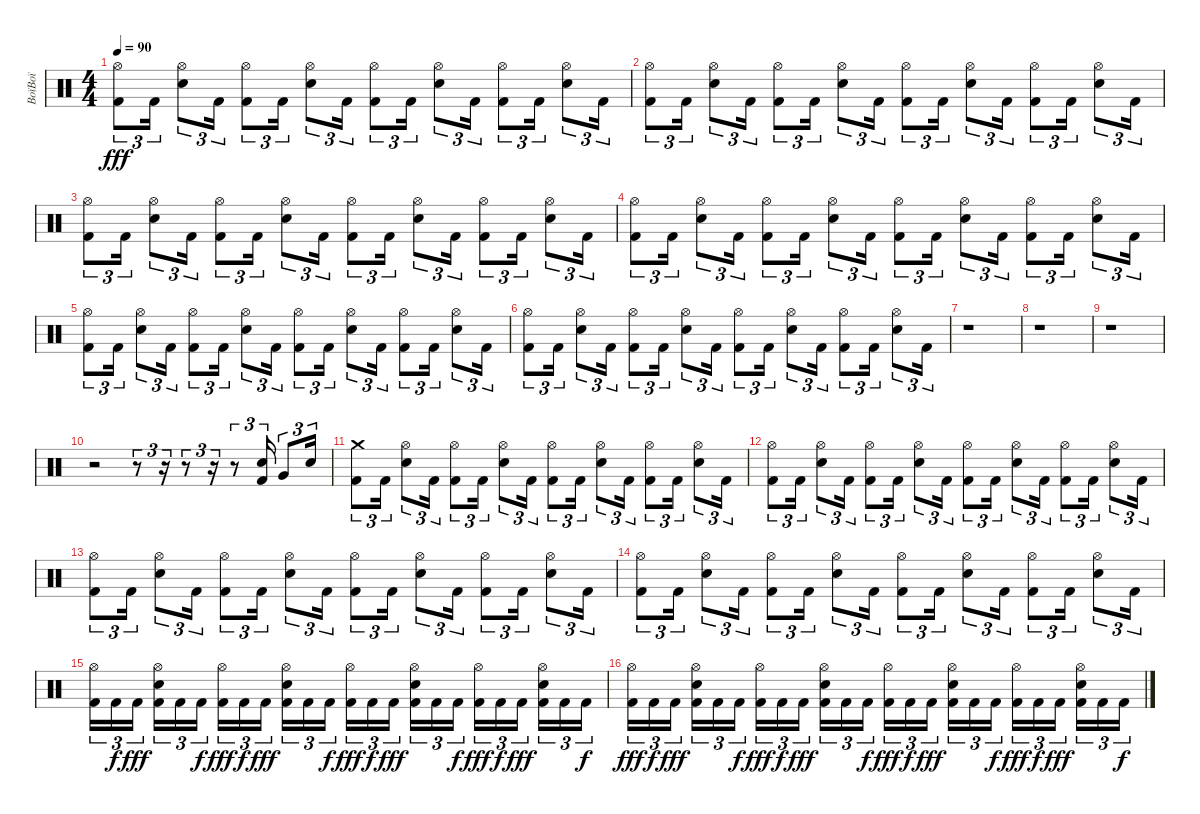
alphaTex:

\track ("BoïBoï" "BoïBoï") {instrument percussion}
\staff {score}
\articulation defaults
\ts (4 4)
\tempo 90
\clef neutral
\ks c
("Hi-Hat (open)" "Kick (hit) 2").8{tu (3 2) dy fff} "Kick (hit) 2".16{tu (3 2)} ("Hi-Hat (open)" "Electric Snare (hit)").8{tu (3 2)} "Kick (hit) 2".16{tu (3 2)} ("Hi-Hat (open)" "Kick (hit) 2").8{tu (3 2)} "Kick (hit) 2".16{tu (3 2)} ("Hi-Hat (open)" "Electric Snare (hit)").8{tu (3 2)} "Kick (hit) 2".16{tu (3 2)} ("Hi-Hat (open)" "Kick (hit) 2").8{tu (3 2)} "Kick (hit) 2".16{tu (3 2)} ("Hi-Hat (open)" "Electric Snare (hit)").8{tu (3 2)} "Kick (hit) 2".16{tu (3 2)} ("Hi-Hat (open)" "Kick (hit) 2").8{tu (3 2)} "Kick (hit) 2".16{tu (3 2)} ("Hi-Hat (open)" "Electric Snare (hit)").8{tu (3 2)} "Kick (hit) 2".16{tu (3 2)} |
("Hi-Hat (open)" "Kick (hit) 2").8{tu (3 2)} "Kick (hit) 2".16{tu (3 2)} ("Hi-Hat (open)" "Electric Snare (hit)").8{tu (3 2)} "Kick (hit) 2".16{tu (3 2)} ("Hi-Hat (open)" "Kick (hit) 2").8{tu (3 2)} "Kick (hit) 2".16{tu (3 2)} ("Hi-Hat (open)" "Electric Snare (hit)").8{tu (3 2)} "Kick (hit) 2".16{tu (3 2)} ("Hi-Hat (open)" "Kick (hit) 2").8{tu (3 2)} "Kick (hit) 2".16{tu (3 2)} ("Hi-Hat (open)" "Electric Snare (hit)").8{tu (3 2)} "Kick (hit) 2".16{tu (3 2)} ("Hi-Hat (open)" "Kick (hit) 2").8{tu (3 2)} "Kick (hit) 2".16{tu (3 2)} ("Hi-Hat (open)" "Electric Snare (hit)").8{tu (3 2)} "Kick (hit) 2".16{tu (3 2)} |
("Hi-Hat (open)" "Kick (hit) 2").8{tu (3 2)} "Kick (hit) 2".16{tu (3 2)} ("Hi-Hat (open)" "Electric Snare (hit)").8{tu (3 2)} "Kick (hit) 2".16{tu (3 2)} ("Hi-Hat (open)" "Kick (hit) 2").8{tu (3 2)} "Kick (hit) 2".16{tu (3 2)} ("Hi-Hat (open)" "Electric Snare (hit)").8{tu (3 2)} "Kick (hit) 2".16{tu (3 2)} ("Hi-Hat (open)" "Kick (hit) 2").8{tu (3 2)} "Kick (hit) 2".16{tu (3 2)} ("Hi-Hat (open)" "Electric Snare (hit)").8{tu (3 2)} "Kick (hit) 2".16{tu (3 2)} ("Hi-Hat (open)" "Kick (hit) 2").8{tu (3 2)} "Kick (hit) 2".16{tu (3 2)} ("Hi-Hat (open)" "Electric Snare (hit)").8{tu (3 2)} "Kick (hit) 2".16{tu (3 2)} |
("Hi-Hat (open)" "Kick (hit) 2").8{tu (3 2)} "Kick (hit) 2".16{tu (3 2)} ("Hi-Hat (open)" "Electric Snare (hit)").8{tu (3 2)} "Kick (hit) 2".16{tu (3 2)} ("Hi-Hat (open)" "Kick (hit) 2").8{tu (3 2)} "Kick (hit) 2".16{tu (3 2)} ("Hi-Hat (open)" "Electric Snare (hit)").8{tu (3 2)} "Kick (hit) 2".16{tu (3 2)} ("Hi-Hat (open)" "Kick (hit) 2").8{tu (3 2)} "Kick (hit) 2".16{tu (3 2)} ("Hi-Hat (open)" "Electric Snare (hit)").8{tu (3 2)} "Kick (hit) 2".16{tu (3 2)} ("Hi-Hat (open)" "Kick (hit) 2").8{tu (3 2)} "Kick (hit) 2".16{tu (3 2)} ("Hi-Hat (open)" "Electric Snare (hit)").8{tu (3 2)} "Kick (hit) 2".16{tu (3 2)} |
("Hi-Hat (open)" "Kick (hit) 2").8{tu (3 2)} "Kick (hit) 2".16{tu (3 2)} ("Hi-Hat (open)" "Electric Snare (hit)").8{tu (3 2)} "Kick (hit) 2".16{tu (3 2)} ("Hi-Hat (open)" "Kick (hit) 2").8{tu (3 2)} "Kick (hit) 2".16{tu (3 2)} ("Hi-Hat (open)" "Electric Snare (hit)").8{tu (3 2)} "Kick (hit) 2".16{tu (3 2)} ("Hi-Hat (open)" "Kick (hit) 2").8{tu (3 2)} "Kick (hit) 2".16{tu (3 2)} ("Hi-Hat (open)" "Electric Snare (hit)").8{tu (3 2)} "Kick (hit) 2".16{tu (3 2)} ("Hi-Hat (open)" "Kick (hit) 2").8{tu (3 2)} "Kick (hit) 2".16{tu (3 2)} ("Hi-Hat (open)" "Electric Snare (hit)").8{tu (3 2)} "Kick (hit) 2".16{tu (3 2)} |
("Hi-Hat (open)" "Kick (hit) 2").8{tu (3 2)} "Kick (hit) 2".16{tu (3 2)} ("Hi-Hat (open)" "Electric Snare (hit)").8{tu (3 2)} "Kick (hit) 2".16{tu (3 2)} ("Hi-Hat (open)" "Kick (hit) 2").8{tu (3 2)} "Kick (hit) 2".16{tu (3 2)} ("Hi-Hat (open)" "Electric Snare (hit)").8{tu (3 2)} "Kick (hit) 2".16{tu (3 2)} ("Hi-Hat (open)" "Kick (hit) 2").8{tu (3 2)} "Kick (hit) 2".16{tu (3 2)} ("Hi-Hat (open)" "Electric Snare (hit)").8{tu (3 2)} "Kick (hit) 2".16{tu (3 2)} ("Hi-Hat (open)" "Kick (hit) 2").8{tu (3 2)} "Kick (hit) 2".16{tu (3 2)} ("Hi-Hat (open)" "Electric Snare (hit)").8{tu (3 2)} "Kick (hit) 2".16{tu (3 2)} |
r.1 |
r.1 |
r.1 |
r.2 r.8{tu (3 2)} r.16{tu (3 2)} r.8{tu (3 2)} r.16{tu (3 2)} r.8{tu (3 2)} ("Electric Snare (hit)" "Kick (hit) 2").16{tu (3 2)} "Very Low Tom (hit)".8{tu (3 2)} "Electric Snare (hit)".16{tu (3 2)} |
("Crash medium (hit)" "Kick (hit) 2").8{tu (3 2)} "Kick (hit) 2".16{tu (3 2)} ("Hi-Hat (open)" "Electric Snare (hit)").8{tu (3 2)} "Kick (hit) 2".16{tu (3 2)} ("Hi-Hat (open)" "Kick (hit) 2").8{tu (3 2)} "Kick (hit) 2".16{tu (3 2)} ("Hi-Hat (open)" "Electric Snare (hit)").8{tu (3 2)} "Kick (hit) 2".16{tu (3 2)} ("Hi-Hat (open)" "Kick (hit) 2").8{tu (3 2)} "Kick (hit) 2".16{tu (3 2)} ("Hi-Hat (open)" "Electric Snare (hit)").8{tu (3 2)} "Kick (hit) 2".16{tu (3 2)} ("Hi-Hat (open)" "Kick (hit) 2").8{tu (3 2)} "Kick (hit) 2".16{tu (3 2)} ("Hi-Hat (open)" "Electric Snare (hit)").8{tu (3 2)} "Kick (hit) 2".16{tu (3 2)} |
("Hi-Hat (open)" "Kick (hit) 2").8{tu (3 2)} "Kick (hit) 2".16{tu (3 2)} ("Hi-Hat (open)" "Electric Snare (hit)").8{tu (3 2)} "Kick (hit) 2".16{tu (3 2)} ("Hi-Hat (open)" "Kick (hit) 2").8{tu (3 2)} "Kick (hit) 2".16{tu (3 2)} ("Hi-Hat (open)" "Electric Snare (hit)").8{tu (3 2)} "Kick (hit) 2".16{tu (3 2)} ("Hi-Hat (open)" "Kick (hit) 2").8{tu (3 2)} "Kick (hit) 2".16{tu (3 2)} ("Hi-Hat (open)" "Electric Snare (hit)").8{tu (3 2)} "Kick (hit) 2".16{tu (3 2)} ("Hi-Hat (open)" "Kick (hit) 2").8{tu (3 2)} "Kick (hit) 2".16{tu (3 2)} ("Hi-Hat (open)" "Electric Snare (hit)").8{tu (3 2)} "Kick (hit) 2".16{tu (3 2)} |
("Hi-Hat (open)" "Kick (hit) 2").8{tu (3 2)} "Kick (hit) 2".16{tu (3 2)} ("Hi-Hat (open)" "Electric Snare (hit)").8{tu (3 2)} "Kick (hit) 2".16{tu (3 2)} ("Hi-Hat (open)" "Kick (hit) 2").8{tu (3 2)} "Kick (hit) 2".16{tu (3 2)} ("Hi-Hat (open)" "Electric Snare (hit)").8{tu (3 2)} "Kick (hit) 2".16{tu (3 2)} ("Hi-Hat (open)" "Kick (hit) 2").8{tu (3 2)} "Kick (hit) 2".16{tu (3 2)} ("Hi-Hat (open)" "Electric Snare (hit)").8{tu (3 2)} "Kick (hit) 2".16{tu (3 2)} ("Hi-Hat (open)" "Kick (hit) 2").8{tu (3 2)} "Kick (hit) 2".16{tu (3 2)} ("Hi-Hat (open)" "Electric Snare (hit)").8{tu (3 2)} "Kick (hit) 2".16{tu (3 2)} |
("Hi-Hat (open)" "Kick (hit) 2").8{tu (3 2)} "Kick (hit) 2".16{tu (3 2)} ("Hi-Hat (open)" "Electric Snare (hit)").8{tu (3 2)} "Kick (hit) 2".16{tu (3 2)} ("Hi-Hat (open)" "Kick (hit) 2").8{tu (3 2)} "Kick (hit) 2".16{tu (3 2)} ("Hi-Hat (open)" "Electric Snare (hit)").8{tu (3 2)} "Kick (hit) 2".16{tu (3 2)} ("Hi-Hat (open)" "Kick (hit) 2").8{tu (3 2)} "Kick (hit) 2".16{tu (3 2)} ("Hi-Hat (open)" "Electric Snare (hit)").8{tu (3 2)} "Kick (hit) 2".16{tu (3 2)} ("Hi-Hat (open)" "Kick (hit) 2").8{tu (3 2)} "Kick (hit) 2".16{tu (3 2)} ("Hi-Hat (open)" "Electric Snare (hit)").8{tu (3 2)} "Kick (hit) 2".16{tu (3 2)} |
("Hi-Hat (open)" "Kick (hit) 2").16{tu (3 2)} "Kick (hit) 2".16{tu (3 2) dy f} "Kick (hit) 2".16{tu (3 2) dy fff beam splitsecondary} ("Hi-Hat (open)" "Electric Snare (hit)" "Kick (hit) 2").16{tu (3 2)} "Kick (hit) 2".16{tu (3 2)} "Kick (hit) 2".16{tu (3 2) dy f} ("Hi-Hat (open)" "Kick (hit) 2").16{tu (3 2) dy fff} "Kick (hit) 2".16{tu (3 2) dy f} "Kick (hit) 2".16{tu (3 2) dy fff beam splitsecondary} ("Hi-Hat (open)" "Electric Snare (hit)" "Kick (hit) 2").16{tu (3 2)} "Kick (hit) 2".16{tu (3 2)} "Kick (hit) 2".16{tu (3 2) dy f} ("Hi-Hat (open)" "Kick (hit) 2").16{tu (3 2) dy fff} "Kick (hit) 2".16{tu (3 2) dy f} "Kick (hit) 2".16{tu (3 2) dy fff beam splitsecondary} ("Hi-Hat (open)" "Electric Snare (hit)" "Kick (hit) 2").16{tu (3 2)} "Kick (hit) 2".16{tu (3 2)} "Kick (hit) 2".16{tu (3 2) dy f} ("Hi-Hat (open)" "Kick (hit) 2").16{tu (3 2) dy fff} "Kick (hit) 2".16{tu (3 2) dy f} "Kick (hit) 2".16{tu (3 2) dy fff beam splitsecondary} ("Hi-Hat (open)" "Electric Snare (hit)" "Kick (hit) 2").16{tu (3 2)} "Kick (hit) 2".16{tu (3 2)} "Kick (hit) 2".16{tu (3 2) dy f} |
("Hi-Hat (open)" "Kick (hit) 2").16{tu (3 2) dy fff} "Kick (hit) 2".16{tu (3 2) dy f} "Kick (hit) 2".16{tu (3 2) dy fff beam splitsecondary} ("Hi-Hat (open)" "Electric Snare (hit)" "Kick (hit) 2").16{tu (3 2)} "Kick (hit) 2".16{tu (3 2)} "Kick (hit) 2".16{tu (3 2) dy f} ("Hi-Hat (open)" "Kick (hit) 2").16{tu (3 2) dy fff} "Kick (hit) 2".16{tu (3 2) dy f} "Kick (hit) 2".16{tu (3 2) dy fff beam splitsecondary} ("Hi-Hat (open)" "Electric Snare (hit)" "Kick (hit) 2").16{tu (3 2)} "Kick (hit) 2".16{tu (3 2)} "Kick (hit) 2".16{tu (3 2) dy f} ("Hi-Hat (open)" "Kick (hit) 2").16{tu (3 2) dy fff} "Kick (hit) 2".16{tu (3 2) dy f} "Kick (hit) 2".16{tu (3 2) dy fff beam splitsecondary} ("Hi-Hat (open)" "Electric Snare (hit)" "Kick (hit) 2").16{tu (3 2)} "Kick (hit) 2".16{tu (3 2)} "Kick (hit) 2".16{tu (3 2) dy f} ("Hi-Hat (open)" "Kick (hit) 2").16{tu (3 2) dy fff} "Kick (hit) 2".16{tu (3 2) dy f} "Kick (hit) 2".16{tu (3 2) dy fff beam splitsecondary} ("Hi-Hat (open)" "Electric Snare (hit)" "Kick (hit) 2").16{tu (3 2)} "Kick (hit) 2".16{tu (3 2)} "Kick (hit) 2".16{tu (3 2) dy f}
